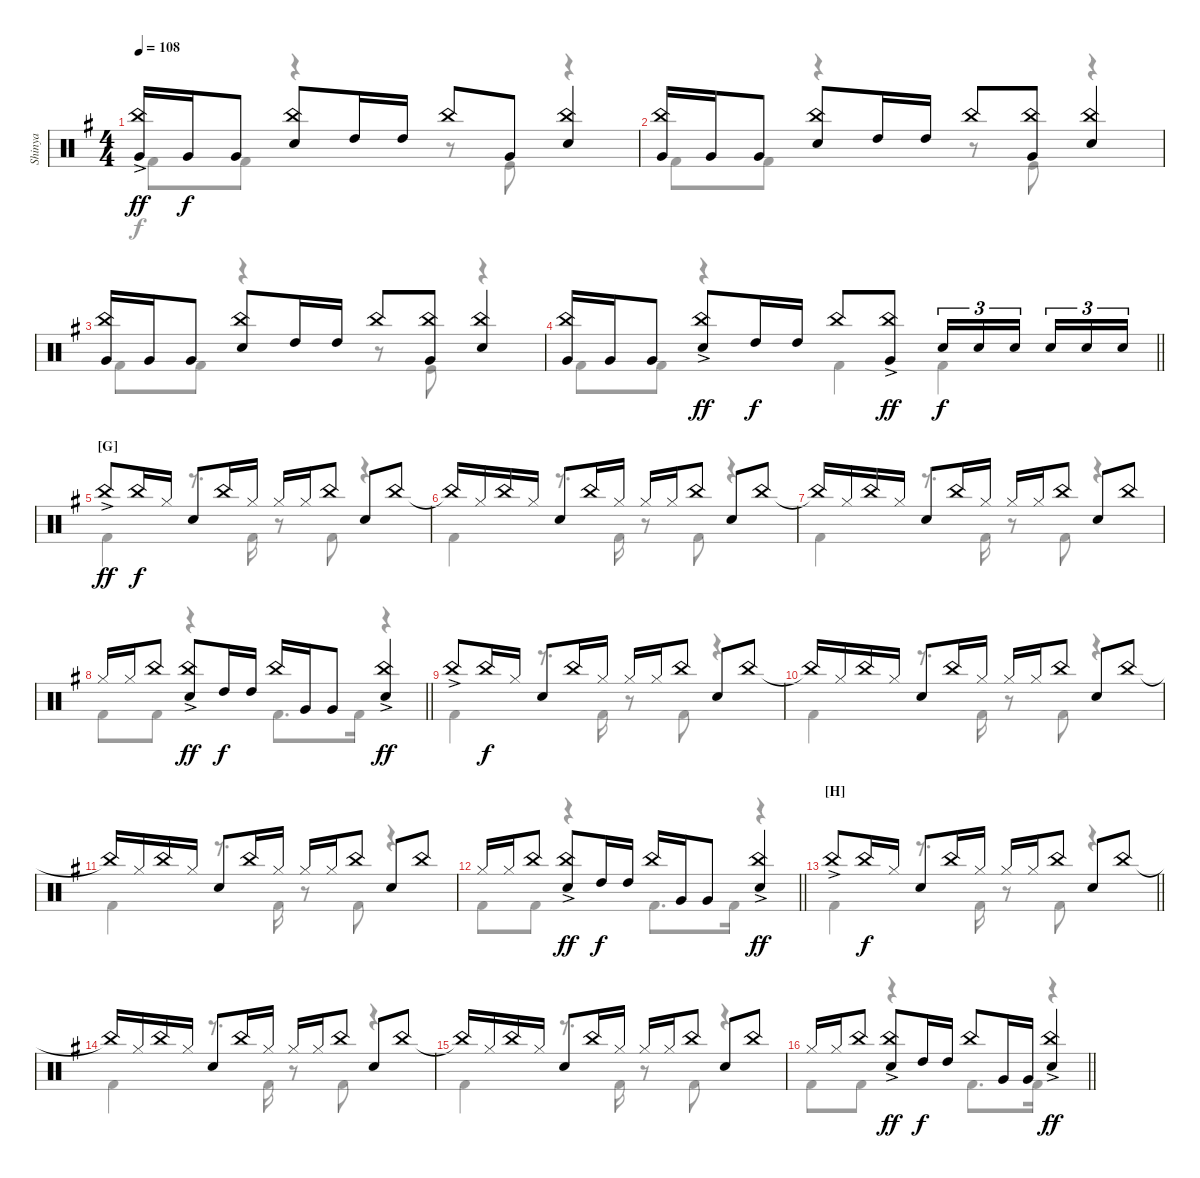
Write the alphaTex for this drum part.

\track ("Shinya" "Shinya") {instrument percussion}
\staff {score}
\articulation defaults
\voice
\ts (4 4)
\tempo 108
\clef neutral
\ks g
("China (hit)"{ac} "Very Low Tom (hit)").16{dy ff} "Very Low Tom (hit)".16{dy f} "Very Low Tom (hit)".8 ("China (hit)" "Snare (hit) 2").8 "High Tom (hit)".16 "High Tom (hit)".16 "China (hit)".8 "Very Low Tom (hit)".8 ("China (hit)" "Snare (hit) 2").4 |
("China (hit)" "Very Low Tom (hit)").16 "Very Low Tom (hit)".16 "Very Low Tom (hit)".8 ("China (hit)" "Snare (hit) 2").8 "High Tom (hit)".16 "High Tom (hit)".16 "China (hit)".8 ("China (hit)" "Very Low Tom (hit)").8 ("China (hit)" "Snare (hit) 2").4 |
("China (hit)" "Very Low Tom (hit)").16 "Very Low Tom (hit)".16 "Very Low Tom (hit)".8 ("China (hit)" "Snare (hit) 2").8 "High Tom (hit)".16 "High Tom (hit)".16 "China (hit)".8 ("China (hit)" "Very Low Tom (hit)").8 ("China (hit)" "Snare (hit) 2").4 |
\barLineRight lightlight
("China (hit)" "Very Low Tom (hit)").16 "Very Low Tom (hit)".16 "Very Low Tom (hit)".8 ("China (hit)"{ac} "Snare (hit) 2").8{dy ff} "High Tom (hit)".16{dy f} "High Tom (hit)".16 "China (hit)".8 ("China (hit)" "Very Low Tom (hit)"{ac}).8{dy ff} "Snare (hit) 2".16{tu (3 2) dy f} "Snare (hit) 2".16{tu (3 2)} "Snare (hit) 2".16{tu (3 2) beam splitsecondary} "Snare (hit) 2".16{tu (3 2)} "Snare (hit) 2".16{tu (3 2)} "Snare (hit) 2".16{tu (3 2)} |
\section ("" "[G]")
"China (hit)"{ac}.8{dy ff} "China (hit)".16{dy f} "Hi-Hat (closed)".16 "Snare (hit) 2".8 "China (hit)".16 "Hi-Hat (closed)".16 "Hi-Hat (closed)".16 "Hi-Hat (closed)".16 "China (hit)".8 "Snare (hit) 2".8 "China (hit)".8 |
"China (hit)"{t}.16 "Hi-Hat (closed)".16 "China (hit)".16 "Hi-Hat (closed)".16 "Snare (hit) 2".8 "China (hit)".16 "Hi-Hat (closed)".16 "Hi-Hat (closed)".16 "Hi-Hat (closed)".16 "China (hit)".8 "Snare (hit) 2".8 "China (hit)".8 |
"China (hit)"{t}.16 "Hi-Hat (closed)".16 "China (hit)".16 "Hi-Hat (closed)".16 "Snare (hit) 2".8 "China (hit)".16 "Hi-Hat (closed)".16 "Hi-Hat (closed)".16 "Hi-Hat (closed)".16 "China (hit)".8 "Snare (hit) 2".8 "China (hit)".8 |
\barLineRight lightlight "Hi-Hat (closed)".16 "Hi-Hat (closed)".16 "China (hit)".8
("China (hit)"{ac} "Snare (hit) 2").8{dy ff} "High Tom (hit)".16{dy f} "High Tom (hit)".16 "China (hit)".16 "Very Low Tom (hit)".16 "Very Low Tom (hit)".8 ("China (hit)"{ac} "Snare (hit) 2").4{dy ff} |
"China (hit)"{ac}.8 "China (hit)".16{dy f} "Hi-Hat (closed)".16 "Snare (hit) 2".8 "China (hit)".16 "Hi-Hat (closed)".16 "Hi-Hat (closed)".16 "Hi-Hat (closed)".16 "China (hit)".8 "Snare (hit) 2".8 "China (hit)".8 |
"China (hit)"{t}.16 "Hi-Hat (closed)".16 "China (hit)".16 "Hi-Hat (closed)".16 "Snare (hit) 2".8 "China (hit)".16 "Hi-Hat (closed)".16 "Hi-Hat (closed)".16 "Hi-Hat (closed)".16 "China (hit)".8 "Snare (hit) 2".8 "China (hit)".8 |
"China (hit)"{t}.16 "Hi-Hat (closed)".16 "China (hit)".16 "Hi-Hat (closed)".16 "Snare (hit) 2".8 "China (hit)".16 "Hi-Hat (closed)".16 "Hi-Hat (closed)".16 "Hi-Hat (closed)".16 "China (hit)".8 "Snare (hit) 2".8 "China (hit)".8 |
\barLineRight lightlight "Hi-Hat (closed)".16 "Hi-Hat (closed)".16 "China (hit)".8
("China (hit)"{ac} "Snare (hit) 2").8{dy ff} "High Tom (hit)".16{dy f} "High Tom (hit)".16 "China (hit)".16 "Very Low Tom (hit)".16 "Very Low Tom (hit)".8 ("China (hit)"{ac} "Snare (hit) 2").4{dy ff} |
\section ("" "[H]")
\barLineRight lightlight "China (hit)"{ac}.8 "China (hit)".16{dy f} "Hi-Hat (closed)".16 "Snare (hit) 2".8 "China (hit)".16 "Hi-Hat (closed)".16 "Hi-Hat (closed)".16 "Hi-Hat (closed)".16 "China (hit)".8 "Snare (hit) 2".8 "China (hit)".8
|
\section ("" "")
"China (hit)"{t}.16 "Hi-Hat (closed)".16 "China (hit)".16 "Hi-Hat (closed)".16 "Snare (hit) 2".8 "China (hit)".16 "Hi-Hat (closed)".16 "Hi-Hat (closed)".16 "Hi-Hat (closed)".16 "China (hit)".8 "Snare (hit) 2".8 "China (hit)".8 |
"China (hit)"{t}.16 "Hi-Hat (closed)".16 "China (hit)".16 "Hi-Hat (closed)".16 "Snare (hit) 2".8 "China (hit)".16 "Hi-Hat (closed)".16 "Hi-Hat (closed)".16 "Hi-Hat (closed)".16 "China (hit)".8 "Snare (hit) 2".8 "China (hit)".8 |
\barLineRight lightlight "Hi-Hat (closed)".16 "Hi-Hat (closed)".16 "China (hit)".8
("China (hit)"{ac} "Snare (hit) 2").8{dy ff} "High Tom (hit)".16{dy f} "High Tom (hit)".16 "China (hit)".8 "Very Low Tom (hit)".16 "Very Low Tom (hit)".16 ("China (hit)"{ac} "Snare (hit) 2").4{dy ff}
\voice
\clef neutral
\ottava regular
\simile none
\ks g "Kick (hit) 2".8{dy f} "Kick (hit) 2".8
r.4 r.8 "Kick (hit)".8 r.4 |
"Kick (hit) 2".8 "Kick (hit) 2".8 r.4 r.8 "Kick (hit)".8 r.4 |
"Kick (hit) 2".8 "Kick (hit) 2".8 r.4 r.8 "Kick (hit)".8 r.4 |
\barLineRight lightlight "Kick (hit) 2".8 "Kick (hit) 2".8
r.4 "Kick (hit) 2".4 "Kick (hit) 2".4 |
"Kick (hit) 2".4 r.8{d} "Kick (hit) 2".16 r.8 "Kick (hit) 2".8 r.4 |
"Kick (hit) 2".4 r.8{d} "Kick (hit) 2".16 r.8 "Kick (hit) 2".8 r.4 |
"Kick (hit) 2".4 r.8{d} "Kick (hit) 2".16 r.8 "Kick (hit) 2".8 r.4 |
\barLineRight lightlight "Kick (hit) 2".8 "Kick (hit) 2".8
r.4 "Kick (hit) 2".8{d} "Kick (hit) 2".16 r.4 |
"Kick (hit) 2".4 r.8{d} "Kick (hit) 2".16 r.8 "Kick (hit) 2".8 r.4 |
"Kick (hit) 2".4 r.8{d} "Kick (hit) 2".16 r.8 "Kick (hit) 2".8 r.4 |
"Kick (hit) 2".4 r.8{d} "Kick (hit) 2".16 r.8 "Kick (hit) 2".8 r.4 |
\barLineRight lightlight "Kick (hit) 2".8 "Kick (hit) 2".8
r.4 "Kick (hit) 2".8{d} "Kick (hit) 2".16 r.4 |
\barLineRight lightlight "Kick (hit) 2".4
r.8{d} "Kick (hit) 2".16 r.8 "Kick (hit) 2".8 r.4 |
"Kick (hit) 2".4 r.8{d} "Kick (hit) 2".16 r.8 "Kick (hit) 2".8 r.4 |
"Kick (hit) 2".4 r.8{d} "Kick (hit) 2".16 r.8 "Kick (hit) 2".8 r.4 |
\barLineRight lightlight "Kick (hit) 2".8 "Kick (hit) 2".8
r.4 "Kick (hit) 2".8{d} "Kick (hit) 2".16 r.4
